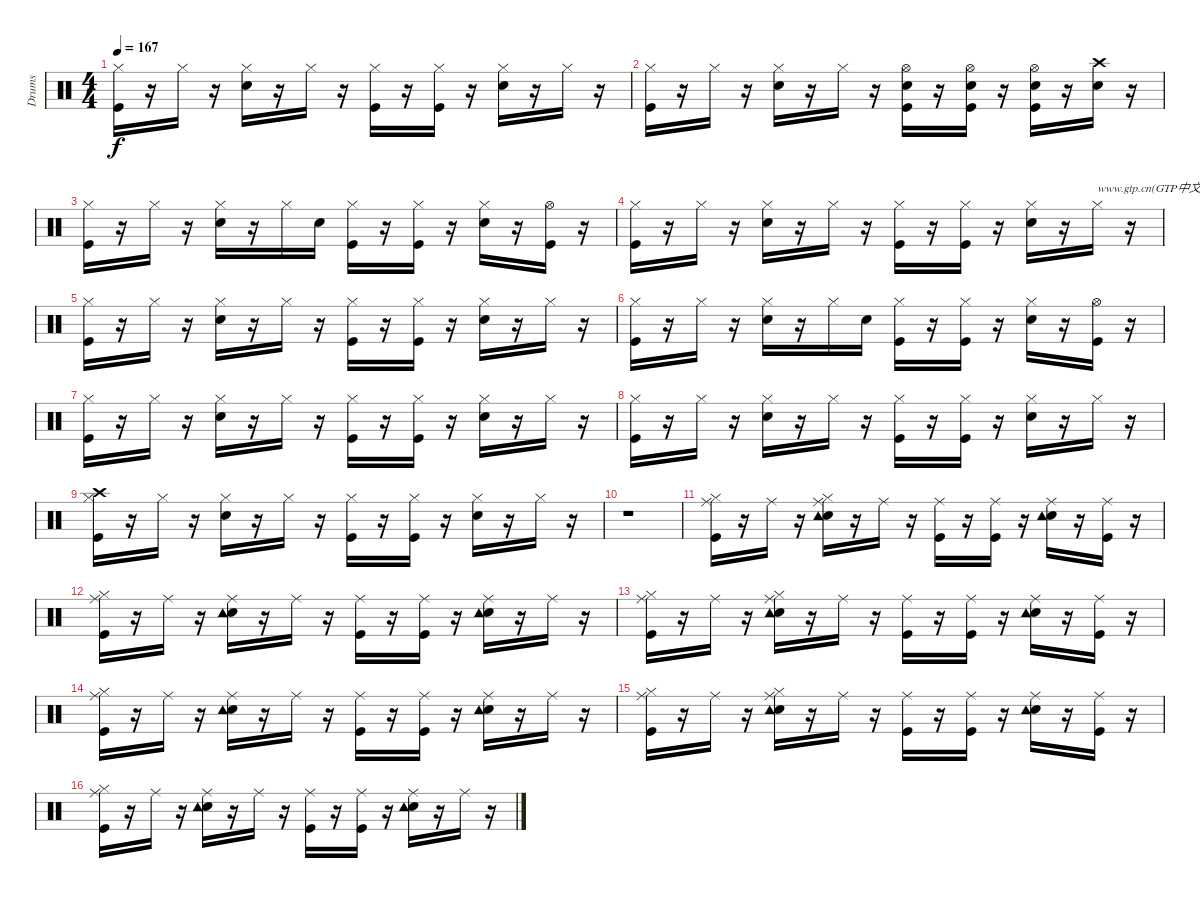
\track ("Drums" "Drums") {instrument percussion}
\staff {score}
\articulation defaults
\ts (4 4)
\tempo 167
\clef neutral
\ks c
("Kick (hit)" "Hi-Hat (closed)").16{dy f} r.16 "Hi-Hat (closed)".16 r.16 ("Snare (hit) 2" "Hi-Hat (closed)").16 r.16 "Hi-Hat (closed)".16 r.16 ("Kick (hit)" "Hi-Hat (closed)").16 r.16 ("Kick (hit)" "Hi-Hat (closed)").16 r.16 ("Snare (hit) 2" "Hi-Hat (closed)").16 r.16 "Hi-Hat (closed)".16 r.16 |
("Kick (hit)" "Hi-Hat (closed)").16 r.16 "Hi-Hat (closed)".16 r.16 ("Snare (hit) 2" "Hi-Hat (closed)").16 r.16 "Hi-Hat (closed)".16 r.16 ("Kick (hit)" "Snare (hit) 2" "Hi-Hat (open)").16 r.16 ("Kick (hit)" "Snare (hit) 2" "Hi-Hat (open)").16 r.16 ("Kick (hit)" "Snare (hit) 2" "Hi-Hat (open)").16 r.16 ("Snare (hit) 2" "Crash high (hit)").16 r.16 |
("Kick (hit)" "Hi-Hat (closed)").16 r.16 "Hi-Hat (closed)".16 r.16 ("Snare (hit) 2" "Hi-Hat (closed)").16 r.16 "Hi-Hat (closed)".16 "Snare (hit) 2".16 ("Kick (hit)" "Hi-Hat (closed)").16 r.16 ("Kick (hit)" "Hi-Hat (closed)").16 r.16 ("Snare (hit) 2" "Hi-Hat (closed)").16 r.16 ("Kick (hit)" "Hi-Hat (open)").16 r.16 |
("Kick (hit)" "Hi-Hat (closed)").16 r.16 "Hi-Hat (closed)".16 r.16 ("Snare (hit) 2" "Hi-Hat (closed)").16 r.16 "Hi-Hat (closed)".16 r.16 ("Kick (hit)" "Hi-Hat (closed)").16 r.16 ("Kick (hit)" "Hi-Hat (closed)").16 r.16 ("Snare (hit) 2" "Hi-Hat (closed)").16 r.16 "Hi-Hat (closed)".16{txt "www.gtp.cn(GTP中文网)您提供优秀的GTP"} r.16 |
("Kick (hit)" "Hi-Hat (closed)").16 r.16 "Hi-Hat (closed)".16 r.16 ("Snare (hit) 2" "Hi-Hat (closed)").16 r.16 "Hi-Hat (closed)".16 r.16 ("Kick (hit)" "Hi-Hat (closed)").16 r.16 ("Kick (hit)" "Hi-Hat (closed)").16 r.16 ("Snare (hit) 2" "Hi-Hat (closed)").16 r.16 "Hi-Hat (closed)".16 r.16 |
("Kick (hit)" "Hi-Hat (closed)").16 r.16 "Hi-Hat (closed)".16 r.16 ("Snare (hit) 2" "Hi-Hat (closed)").16 r.16 "Hi-Hat (closed)".16 "Snare (hit) 2".16 ("Kick (hit)" "Hi-Hat (closed)").16 r.16 ("Kick (hit)" "Hi-Hat (closed)").16 r.16 ("Snare (hit) 2" "Hi-Hat (closed)").16 r.16 ("Kick (hit)" "Hi-Hat (open)").16 r.16 |
("Kick (hit)" "Hi-Hat (closed)").16 r.16 "Hi-Hat (closed)".16 r.16 ("Snare (hit) 2" "Hi-Hat (closed)").16 r.16 "Hi-Hat (closed)".16 r.16 ("Kick (hit)" "Hi-Hat (closed)").16 r.16 ("Kick (hit)" "Hi-Hat (closed)").16 r.16 ("Snare (hit) 2" "Hi-Hat (closed)").16 r.16 "Hi-Hat (closed)".16 r.16 |
("Kick (hit)" "Hi-Hat (closed)").16 r.16 "Hi-Hat (closed)".16 r.16 ("Snare (hit) 2" "Hi-Hat (closed)").16 r.16 "Hi-Hat (closed)".16 r.16 ("Kick (hit)" "Hi-Hat (closed)").16 r.16 ("Kick (hit)" "Hi-Hat (closed)").16 r.16 ("Snare (hit) 2" "Hi-Hat (closed)").16 r.16 "Hi-Hat (closed)".16 r.16 |
("Kick (hit)" "Hi-Hat (closed)" "Crash high (hit)").16 r.16 "Hi-Hat (closed)".16 r.16 ("Snare (hit) 2" "Hi-Hat (closed)").16 r.16 "Hi-Hat (closed)".16 r.16 ("Kick (hit)" "Hi-Hat (closed)").16 r.16 ("Kick (hit)" "Hi-Hat (closed)").16 r.16 ("Snare (hit) 2" "Hi-Hat (closed)").16 r.16 "Hi-Hat (closed)".16 r.16 |
r.1 |
("Kick (hit)" "Hi-Hat (closed)" "Ride (middle)").16 r.16 "Ride (middle)".16 r.16 ("Snare (hit) 2" "Hi-Hat (closed)" "Ride (middle)" "Tambourine (hit)").16 r.16 "Ride (middle)".16 r.16 ("Kick (hit)" "Ride (middle)").16 r.16 ("Kick (hit)" "Ride (middle)").16 r.16 ("Snare (hit) 2" "Ride (middle)" "Tambourine (hit)").16 r.16 ("Kick (hit)" "Ride (middle)").16 r.16 |
("Kick (hit)" "Hi-Hat (closed)" "Ride (middle)").16 r.16 "Ride (middle)".16 r.16 ("Snare (hit) 2" "Ride (middle)" "Tambourine (hit)").16 r.16 "Ride (middle)".16 r.16 ("Kick (hit)" "Ride (middle)").16 r.16 ("Kick (hit)" "Ride (middle)").16 r.16 ("Snare (hit) 2" "Ride (middle)" "Tambourine (hit)").16 r.16 "Ride (middle)".16 r.16 |
("Kick (hit)" "Hi-Hat (closed)" "Ride (middle)").16 r.16 "Ride (middle)".16 r.16 ("Snare (hit) 2" "Hi-Hat (closed)" "Ride (middle)" "Tambourine (hit)").16 r.16 "Ride (middle)".16 r.16 ("Kick (hit)" "Ride (middle)").16 r.16 ("Kick (hit)" "Ride (middle)").16 r.16 ("Snare (hit) 2" "Ride (middle)" "Tambourine (hit)").16 r.16 ("Kick (hit)" "Ride (middle)").16 r.16 |
("Kick (hit)" "Hi-Hat (closed)" "Ride (middle)").16 r.16 "Ride (middle)".16 r.16 ("Snare (hit) 2" "Ride (middle)" "Tambourine (hit)").16 r.16 "Ride (middle)".16 r.16 ("Kick (hit)" "Ride (middle)").16 r.16 ("Kick (hit)" "Ride (middle)").16 r.16 ("Snare (hit) 2" "Ride (middle)" "Tambourine (hit)").16 r.16 "Ride (middle)".16 r.16 |
("Kick (hit)" "Hi-Hat (closed)" "Ride (middle)").16 r.16 "Ride (middle)".16 r.16 ("Snare (hit) 2" "Hi-Hat (closed)" "Ride (middle)" "Tambourine (hit)").16 r.16 "Ride (middle)".16 r.16 ("Kick (hit)" "Ride (middle)").16 r.16 ("Kick (hit)" "Ride (middle)").16 r.16 ("Snare (hit) 2" "Ride (middle)" "Tambourine (hit)").16 r.16 ("Kick (hit)" "Ride (middle)").16 r.16 |
("Kick (hit)" "Hi-Hat (closed)" "Ride (middle)").16 r.16 "Ride (middle)".16 r.16 ("Snare (hit) 2" "Ride (middle)" "Tambourine (hit)").16 r.16 "Ride (middle)".16 r.16 ("Kick (hit)" "Ride (middle)").16 r.16 ("Kick (hit)" "Ride (middle)").16 r.16 ("Snare (hit) 2" "Ride (middle)" "Tambourine (hit)").16 r.16 "Ride (middle)".16 r.16
